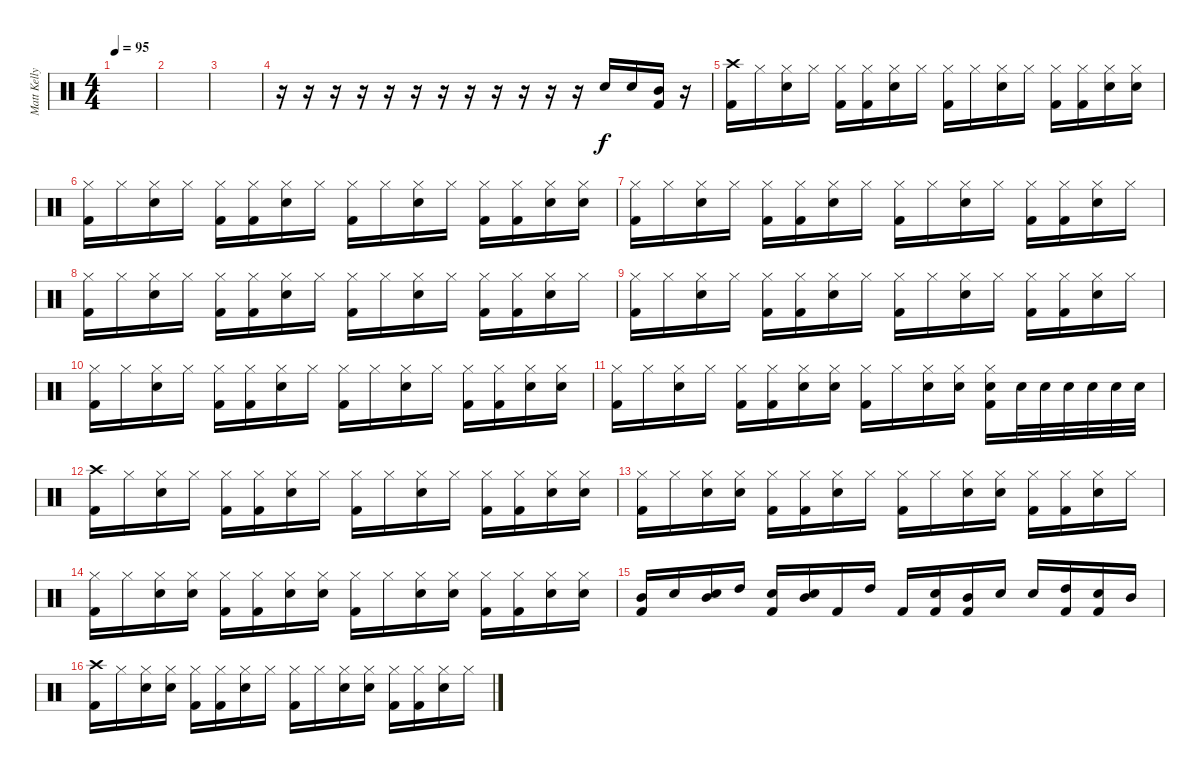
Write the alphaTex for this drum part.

\track ("Matt Kelly - Drums" "Matt Kelly") {instrument percussion}
\staff {score}
\articulation defaults
\ts (4 4)
\tempo 95
\clef neutral
\ks c
|
|
|
r.16 r.16 r.16 r.16 r.16 r.16 r.16 r.16 r.16 r.16 r.16 r.16 "Electric Snare (hit)".16 "Electric Snare (hit)".16 ("Mid Tom (hit)" "Kick (hit) 2").16 r.16 |
("Crash high (hit)" "Kick (hit) 2").16 "Hi-Hat (closed)".16 ("Hi-Hat (closed)" "Electric Snare (hit)").16 "Hi-Hat (closed)".16 ("Hi-Hat (closed)" "Kick (hit) 2").16 ("Hi-Hat (closed)" "Kick (hit) 2").16 ("Hi-Hat (closed)" "Electric Snare (hit)").16 "Hi-Hat (closed)".16 ("Hi-Hat (closed)" "Kick (hit) 2").16 "Hi-Hat (closed)".16 ("Hi-Hat (closed)" "Electric Snare (hit)").16 "Hi-Hat (closed)".16 ("Hi-Hat (closed)" "Kick (hit) 2").16 ("Hi-Hat (closed)" "Kick (hit) 2").16 ("Hi-Hat (closed)" "Electric Snare (hit)").16 ("Hi-Hat (closed)" "Electric Snare (hit)").16 |
("Hi-Hat (closed)" "Kick (hit) 2").16 "Hi-Hat (closed)".16 ("Hi-Hat (closed)" "Electric Snare (hit)").16 "Hi-Hat (closed)".16 ("Hi-Hat (closed)" "Kick (hit) 2").16 ("Hi-Hat (closed)" "Kick (hit) 2").16 ("Hi-Hat (closed)" "Electric Snare (hit)").16 "Hi-Hat (closed)".16 ("Hi-Hat (closed)" "Kick (hit) 2").16 "Hi-Hat (closed)".16 ("Hi-Hat (closed)" "Electric Snare (hit)").16 "Hi-Hat (closed)".16 ("Hi-Hat (closed)" "Kick (hit) 2").16 ("Hi-Hat (closed)" "Kick (hit) 2").16 ("Hi-Hat (closed)" "Electric Snare (hit)").16 ("Hi-Hat (closed)" "Electric Snare (hit)").16 |
("Hi-Hat (closed)" "Kick (hit) 2").16 "Hi-Hat (closed)".16 ("Hi-Hat (closed)" "Electric Snare (hit)").16 "Hi-Hat (closed)".16 ("Hi-Hat (closed)" "Kick (hit) 2").16 ("Hi-Hat (closed)" "Kick (hit) 2").16 ("Hi-Hat (closed)" "Electric Snare (hit)").16 "Hi-Hat (closed)".16 ("Hi-Hat (closed)" "Kick (hit) 2").16 "Hi-Hat (closed)".16 ("Hi-Hat (closed)" "Electric Snare (hit)").16 "Hi-Hat (closed)".16 ("Hi-Hat (closed)" "Kick (hit) 2").16 ("Hi-Hat (closed)" "Kick (hit) 2").16 ("Hi-Hat (closed)" "Electric Snare (hit)").16 "Hi-Hat (closed)".16 |
("Hi-Hat (closed)" "Kick (hit) 2").16 "Hi-Hat (closed)".16 ("Hi-Hat (closed)" "Electric Snare (hit)").16 "Hi-Hat (closed)".16 ("Hi-Hat (closed)" "Kick (hit) 2").16 ("Hi-Hat (closed)" "Kick (hit) 2").16 ("Hi-Hat (closed)" "Electric Snare (hit)").16 "Hi-Hat (closed)".16 ("Hi-Hat (closed)" "Kick (hit) 2").16 "Hi-Hat (closed)".16 ("Hi-Hat (closed)" "Electric Snare (hit)").16 "Hi-Hat (closed)".16 ("Hi-Hat (closed)" "Kick (hit) 2").16 ("Hi-Hat (closed)" "Kick (hit) 2").16 ("Hi-Hat (closed)" "Electric Snare (hit)").16 "Hi-Hat (closed)".16 |
("Hi-Hat (closed)" "Kick (hit) 2").16 "Hi-Hat (closed)".16 ("Hi-Hat (closed)" "Electric Snare (hit)").16 "Hi-Hat (closed)".16 ("Hi-Hat (closed)" "Kick (hit) 2").16 ("Hi-Hat (closed)" "Kick (hit) 2").16 ("Hi-Hat (closed)" "Electric Snare (hit)").16 "Hi-Hat (closed)".16 ("Hi-Hat (closed)" "Kick (hit) 2").16 "Hi-Hat (closed)".16 ("Hi-Hat (closed)" "Electric Snare (hit)").16 "Hi-Hat (closed)".16 ("Hi-Hat (closed)" "Kick (hit) 2").16 ("Hi-Hat (closed)" "Kick (hit) 2").16 ("Hi-Hat (closed)" "Electric Snare (hit)").16 "Hi-Hat (closed)".16 |
("Hi-Hat (closed)" "Kick (hit) 2").16 "Hi-Hat (closed)".16 ("Hi-Hat (closed)" "Electric Snare (hit)").16 "Hi-Hat (closed)".16 ("Hi-Hat (closed)" "Kick (hit) 2").16 ("Hi-Hat (closed)" "Kick (hit) 2").16 ("Hi-Hat (closed)" "Electric Snare (hit)").16 "Hi-Hat (closed)".16 ("Hi-Hat (closed)" "Kick (hit) 2").16 "Hi-Hat (closed)".16 ("Hi-Hat (closed)" "Electric Snare (hit)").16 "Hi-Hat (closed)".16 ("Hi-Hat (closed)" "Kick (hit) 2").16 ("Hi-Hat (closed)" "Kick (hit) 2").16 ("Hi-Hat (closed)" "Electric Snare (hit)").16 ("Hi-Hat (closed)" "Electric Snare (hit)").16 |
("Hi-Hat (closed)" "Kick (hit) 2").16 "Hi-Hat (closed)".16 ("Hi-Hat (closed)" "Electric Snare (hit)").16 "Hi-Hat (closed)".16 ("Hi-Hat (closed)" "Kick (hit) 2").16 ("Hi-Hat (closed)" "Kick (hit) 2").16 ("Hi-Hat (closed)" "Electric Snare (hit)").16 ("Hi-Hat (closed)" "Electric Snare (hit)").16 ("Hi-Hat (closed)" "Kick (hit) 2").16 "Hi-Hat (closed)".16 ("Hi-Hat (closed)" "Electric Snare (hit)").16 ("Hi-Hat (closed)" "Electric Snare (hit)").16 ("Hi-Hat (closed)" "Electric Snare (hit)" "Kick (hit) 2").16 "Electric Snare (hit)".32 "Electric Snare (hit)".32 "Electric Snare (hit)".32 "Electric Snare (hit)".32 "Electric Snare (hit)".32 "Electric Snare (hit)".32 |
("Crash high (hit)" "Kick (hit) 2").16 "Hi-Hat (closed)".16 ("Hi-Hat (closed)" "Electric Snare (hit)").16 "Hi-Hat (closed)".16 ("Hi-Hat (closed)" "Kick (hit) 2").16 ("Hi-Hat (closed)" "Kick (hit) 2").16 ("Hi-Hat (closed)" "Electric Snare (hit)").16 "Hi-Hat (closed)".16 ("Hi-Hat (closed)" "Kick (hit) 2").16 "Hi-Hat (closed)".16 ("Hi-Hat (closed)" "Electric Snare (hit)").16 "Hi-Hat (closed)".16 ("Hi-Hat (closed)" "Kick (hit) 2").16 ("Hi-Hat (closed)" "Kick (hit) 2").16 ("Hi-Hat (closed)" "Electric Snare (hit)").16 ("Hi-Hat (closed)" "Electric Snare (hit)").16 |
("Hi-Hat (closed)" "Kick (hit) 2").16 "Hi-Hat (closed)".16 ("Hi-Hat (closed)" "Electric Snare (hit)").16 ("Hi-Hat (closed)" "Electric Snare (hit)").16 ("Hi-Hat (closed)" "Kick (hit) 2").16 ("Hi-Hat (closed)" "Kick (hit) 2").16 ("Hi-Hat (closed)" "Electric Snare (hit)").16 "Hi-Hat (closed)".16 ("Hi-Hat (closed)" "Kick (hit) 2").16 "Hi-Hat (closed)".16 ("Hi-Hat (closed)" "Electric Snare (hit)").16 ("Hi-Hat (closed)" "Electric Snare (hit)").16 ("Hi-Hat (closed)" "Kick (hit) 2").16 ("Hi-Hat (closed)" "Kick (hit) 2").16 ("Hi-Hat (closed)" "Electric Snare (hit)").16 "Hi-Hat (closed)".16 |
("Hi-Hat (closed)" "Kick (hit) 2").16 "Hi-Hat (closed)".16 ("Hi-Hat (closed)" "Electric Snare (hit)").16 ("Hi-Hat (closed)" "Electric Snare (hit)").16 ("Hi-Hat (closed)" "Kick (hit) 2").16 ("Hi-Hat (closed)" "Kick (hit) 2").16 ("Hi-Hat (closed)" "Electric Snare (hit)").16 ("Hi-Hat (closed)" "Electric Snare (hit)").16 ("Hi-Hat (closed)" "Kick (hit) 2").16 "Hi-Hat (closed)".16 ("Hi-Hat (closed)" "Electric Snare (hit)").16 ("Hi-Hat (closed)" "Electric Snare (hit)").16 ("Hi-Hat (closed)" "Kick (hit) 2").16 ("Hi-Hat (closed)" "Kick (hit) 2").16 ("Hi-Hat (closed)" "Electric Snare (hit)").16 ("Hi-Hat (closed)" "Electric Snare (hit)").16 |
("Mid Tom (hit)" "Kick (hit) 2").16 "Electric Snare (hit)".16 ("Electric Snare (hit)" "Mid Tom (hit)").16 "High Tom (hit)".16 ("Electric Snare (hit)" "Kick (hit) 2").16 ("Electric Snare (hit)" "Mid Tom (hit)").16 "Kick (hit) 2".16 "High Tom (hit)".16 "Kick (hit) 2".16 ("Electric Snare (hit)" "Kick (hit) 2").16 ("Mid Tom (hit)" "Kick (hit) 2").16 "Electric Snare (hit)".16 "Electric Snare (hit)".16 ("High Tom (hit)" "Kick (hit) 2").16 ("Electric Snare (hit)" "Kick (hit) 2").16 "Mid Tom (hit)".16 |
("Crash high (hit)" "Kick (hit) 2").16 "Hi-Hat (closed)".16 ("Hi-Hat (closed)" "Electric Snare (hit)").16 ("Hi-Hat (closed)" "Electric Snare (hit)").16 ("Hi-Hat (closed)" "Kick (hit) 2").16 ("Hi-Hat (closed)" "Kick (hit) 2").16 ("Hi-Hat (closed)" "Electric Snare (hit)").16 "Hi-Hat (closed)".16 ("Hi-Hat (closed)" "Kick (hit) 2").16 "Hi-Hat (closed)".16 ("Hi-Hat (closed)" "Electric Snare (hit)").16 ("Hi-Hat (closed)" "Electric Snare (hit)").16 ("Hi-Hat (closed)" "Kick (hit) 2").16 ("Hi-Hat (closed)" "Kick (hit) 2").16 ("Hi-Hat (closed)" "Electric Snare (hit)").16 "Hi-Hat (closed)".16
